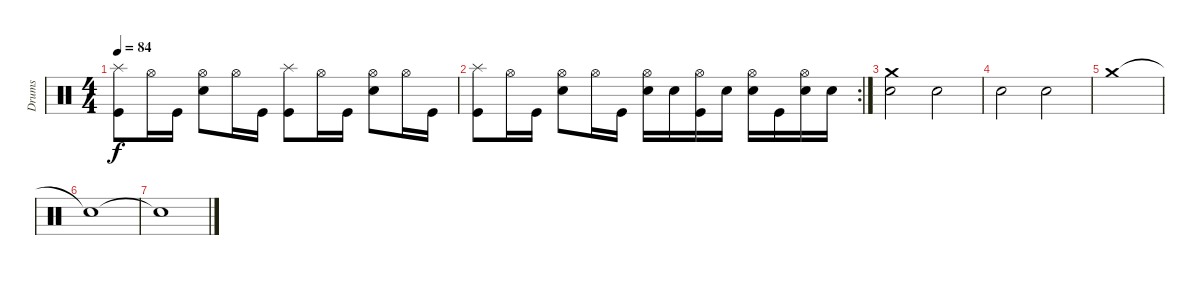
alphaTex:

\track ("Drums" "Drums") {instrument percussion}
\staff {score}
\articulation defaults
\ts (4 4)
\tempo 84
\clef neutral
\ks c
("Splash (hit)" "Kick (hit)").8{dy f} "Hi-Hat (open)".16 "Kick (hit)".16 ("Hi-Hat (open)" "Snare (hit) 2").8 "Hi-Hat (open)".16 "Kick (hit)".16 ("Splash (hit)" "Kick (hit)").8 "Hi-Hat (open)".16 "Kick (hit)".16 ("Hi-Hat (open)" "Snare (hit) 2").8 "Hi-Hat (open)".16 "Kick (hit)".16 |
\rc 2
("Splash (hit)" "Kick (hit)").8 "Hi-Hat (open)".16 "Kick (hit)".16 ("Hi-Hat (open)" "Snare (hit) 2").8 "Hi-Hat (open)".16 "Kick (hit)".16 ("Hi-Hat (open)" "Snare (hit) 2").16 "Snare (hit) 2".16 ("Hi-Hat (open)" "Kick (hit)").16 "Snare (hit) 2".16 ("Hi-Hat (open)" "Snare (hit) 2").16 "Kick (hit)".16 ("Hi-Hat (open)" "Snare (hit) 2").16 "Snare (hit) 2".16 |
("Crash medium (hit)" "Snare (hit) 2").2 "Snare (hit) 2".2 |
"Snare (hit) 2".2 "Snare (hit) 2".2 |
"Crash medium (hit)".1 |
"Snare (hit)"{t}.1 |
"Snare (hit)"{t}.1
